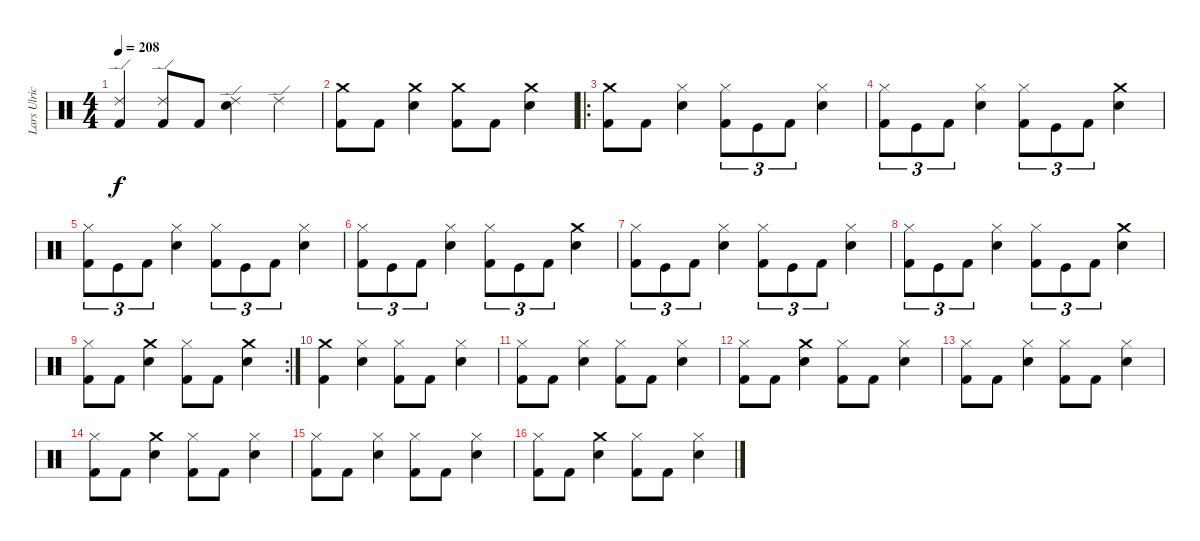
\track ("Lars Ulrich (Drums)" "Lars Ulric") {instrument percussion}
\staff {score}
\articulation defaults
\ts (4 4)
\tempo 208
\clef neutral
\ks c
("Kick (hit) 2" "Ride (edge) 2").4{dy f} ("Ride (edge) 2" "Kick (hit) 2").8 "Kick (hit) 2".8 ("Snare (hit) 2" "Ride (edge) 2").4 "Ride (edge) 2".4 |
("Kick (hit) 2" "Crash medium (hit)").8 "Kick (hit) 2".8 ("Snare (hit) 2" "Crash medium (hit)").4 ("Kick (hit) 2" "Crash medium (hit)").8 "Kick (hit) 2".8 ("Snare (hit) 2" "Crash medium (hit)").4 |
\ro
("Crash medium (hit)" "Kick (hit) 2").8 "Kick (hit) 2".8 ("Snare (hit) 2" "Hi-Hat (closed)").4 ("Hi-Hat (closed)" "Kick (hit) 2").8{tu (3 2)} "Kick (hit)".8{tu (3 2)} "Kick (hit) 2".8{tu (3 2)} ("Hi-Hat (closed)" "Snare (hit) 2").4 |
("Hi-Hat (closed)" "Kick (hit) 2").8{tu (3 2)} "Kick (hit)".8{tu (3 2)} "Kick (hit) 2".8{tu (3 2)} ("Snare (hit) 2" "Hi-Hat (closed)").4 ("Hi-Hat (closed)" "Kick (hit) 2").8{tu (3 2)} "Kick (hit)".8{tu (3 2)} "Kick (hit) 2".8{tu (3 2)} ("Crash medium (hit)" "Snare (hit) 2").4 |
("Hi-Hat (closed)" "Kick (hit) 2").8{tu (3 2)} "Kick (hit)".8{tu (3 2)} "Kick (hit) 2".8{tu (3 2)} ("Snare (hit) 2" "Hi-Hat (closed)").4 ("Hi-Hat (closed)" "Kick (hit) 2").8{tu (3 2)} "Kick (hit)".8{tu (3 2)} "Kick (hit) 2".8{tu (3 2)} ("Hi-Hat (closed)" "Snare (hit) 2").4 |
("Hi-Hat (closed)" "Kick (hit) 2").8{tu (3 2)} "Kick (hit)".8{tu (3 2)} "Kick (hit) 2".8{tu (3 2)} ("Snare (hit) 2" "Hi-Hat (closed)").4 ("Hi-Hat (closed)" "Kick (hit) 2").8{tu (3 2)} "Kick (hit)".8{tu (3 2)} "Kick (hit) 2".8{tu (3 2)} ("Crash medium (hit)" "Snare (hit) 2").4 |
("Hi-Hat (closed)" "Kick (hit) 2").8{tu (3 2)} "Kick (hit)".8{tu (3 2)} "Kick (hit) 2".8{tu (3 2)} ("Snare (hit) 2" "Hi-Hat (closed)").4 ("Hi-Hat (closed)" "Kick (hit) 2").8{tu (3 2)} "Kick (hit)".8{tu (3 2)} "Kick (hit) 2".8{tu (3 2)} ("Hi-Hat (closed)" "Snare (hit) 2").4 |
("Hi-Hat (closed)" "Kick (hit) 2").8{tu (3 2)} "Kick (hit)".8{tu (3 2)} "Kick (hit) 2".8{tu (3 2)} ("Snare (hit) 2" "Hi-Hat (closed)").4 ("Hi-Hat (closed)" "Kick (hit) 2").8{tu (3 2)} "Kick (hit)".8{tu (3 2)} "Kick (hit) 2".8{tu (3 2)} ("Crash medium (hit)" "Snare (hit) 2").4 |
\rc 2
("Kick (hit) 2" "Hi-Hat (closed)").8 "Kick (hit) 2".8 ("Crash medium (hit)" "Snare (hit) 2").4 ("Kick (hit) 2" "Hi-Hat (closed)").8 "Kick (hit) 2".8 ("Crash medium (hit)" "Snare (hit) 2").4 |
("Kick (hit) 2" "Crash medium (hit)").4 ("Hi-Hat (closed)" "Snare (hit) 2").4 ("Hi-Hat (closed)" "Kick (hit) 2").8 "Kick (hit) 2".8 ("Snare (hit) 2" "Hi-Hat (closed)").4 |
("Kick (hit) 2" "Hi-Hat (closed)").8 "Kick (hit) 2".8 ("Snare (hit) 2" "Hi-Hat (closed)").4 ("Kick (hit) 2" "Hi-Hat (closed)").8 "Kick (hit) 2".8 ("Snare (hit) 2" "Hi-Hat (closed)").4 |
("Kick (hit) 2" "Hi-Hat (closed)").8 "Kick (hit) 2".8 ("Crash medium (hit)" "Snare (hit) 2").4 ("Kick (hit) 2" "Hi-Hat (closed)").8 "Kick (hit) 2".8 ("Snare (hit) 2" "Hi-Hat (closed)").4 |
("Kick (hit) 2" "Hi-Hat (closed)").8 "Kick (hit) 2".8 ("Snare (hit) 2" "Hi-Hat (closed)").4 ("Kick (hit) 2" "Hi-Hat (closed)").8 "Kick (hit) 2".8 ("Snare (hit) 2" "Hi-Hat (closed)").4 |
("Kick (hit) 2" "Hi-Hat (closed)").8 "Kick (hit) 2".8 ("Crash medium (hit)" "Snare (hit) 2").4 ("Kick (hit) 2" "Hi-Hat (closed)").8 "Kick (hit) 2".8 ("Snare (hit) 2" "Hi-Hat (closed)").4 |
("Kick (hit) 2" "Hi-Hat (closed)").8 "Kick (hit) 2".8 ("Snare (hit) 2" "Hi-Hat (closed)").4 ("Kick (hit) 2" "Hi-Hat (closed)").8 "Kick (hit) 2".8 ("Snare (hit) 2" "Hi-Hat (closed)").4 |
("Kick (hit) 2" "Hi-Hat (closed)").8 "Kick (hit) 2".8 ("Crash medium (hit)" "Snare (hit) 2").4 ("Kick (hit) 2" "Hi-Hat (closed)").8 "Kick (hit) 2".8 ("Snare (hit) 2" "Hi-Hat (closed)").4
